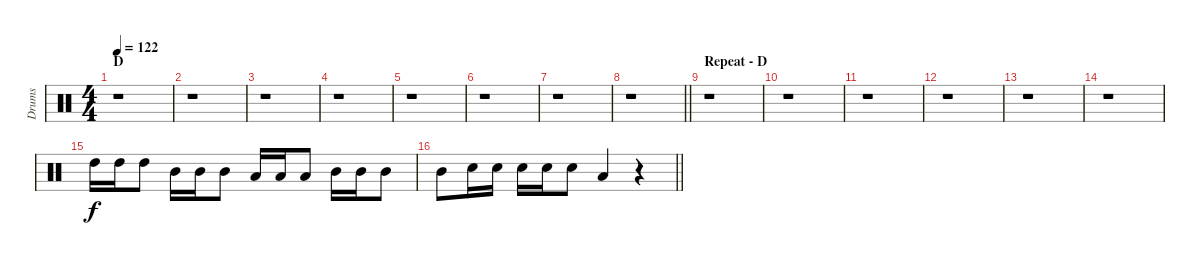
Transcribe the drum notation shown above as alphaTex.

\track ("Drums" "Drums") {instrument percussion}
\staff {score}
\articulation defaults
\ts (4 4)
\section ("" "D")
\tempo 122
\clef neutral
\ks c
r.1{dy f} |
r.1 |
r.1 |
r.1 |
r.1 |
r.1 |
r.1 |
\barLineRight lightlight
r.1 |
\section ("" "Repeat - D")
r.1 |
r.1 |
r.1 |
r.1 |
r.1 |
r.1 |
"High Tom (hit)".16 "High Tom (hit)".16 "High Tom (hit)".8 "Mid Tom (hit)".16 "Mid Tom (hit)".16 "Mid Tom (hit)".8 "Low Tom (hit)".16 "Low Tom (hit)".16 "Low Tom (hit)".8 "Mid Tom (hit)".16 "Mid Tom (hit)".16 "Mid Tom (hit)".8 |
\barLineRight lightlight "Mid Tom (hit)".8 "Electric Snare (hit)".16 "Electric Snare (hit)".16 "Electric Snare (hit)".16 "Electric Snare (hit)".16 "Electric Snare (hit)".8 "Low Tom (hit)".4
r.4
